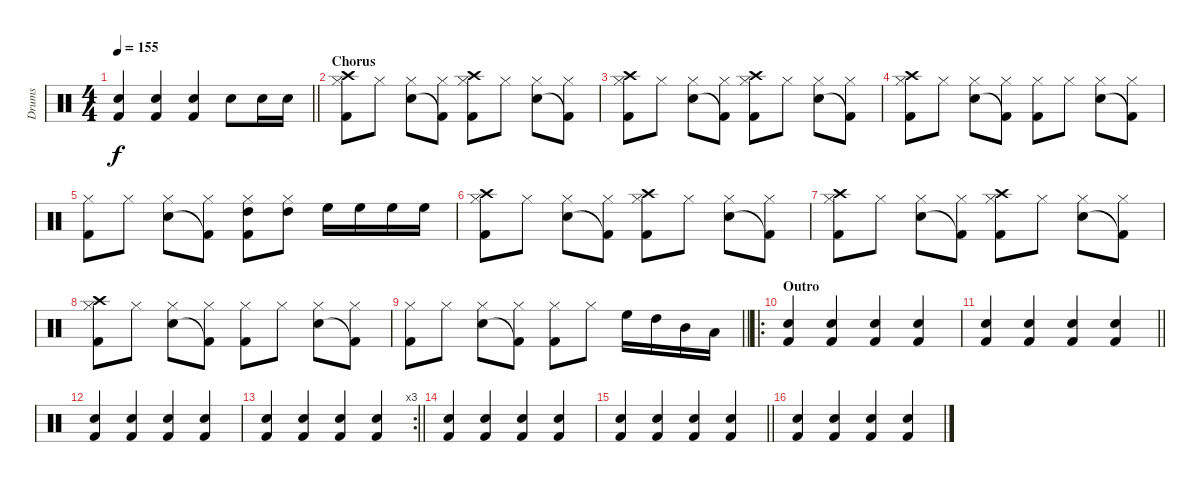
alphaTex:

\track ("Drums" "Drums") {instrument percussion}
\staff {score}
\articulation defaults
\ts (4 4)
\tempo 155
\clef neutral
\barLineRight lightlight
\ks c
("Electric Snare (hit)" "Kick (hit) 2").4{dy f} ("Electric Snare (hit)" "Kick (hit) 2").4 ("Electric Snare (hit)" "Kick (hit) 2").4 "Electric Snare (hit)".8 "Snare (hit) 2".16 "Snare (hit) 2".16 |
\section ("" "Chorus")
("Crash high (hit)" "Kick (hit) 2" "Hi-Hat (closed)").8 "Hi-Hat (closed)".8 ("Snare (hit) 2" "Hi-Hat (closed)").8 ("Kick (hit) 2"{t} "Hi-Hat (closed)").8 ("Crash high (hit)" "Kick (hit) 2" "Hi-Hat (closed)").8 "Hi-Hat (closed)".8 ("Snare (hit) 2" "Hi-Hat (closed)").8 ("Kick (hit) 2"{t} "Hi-Hat (closed)").8 |
("Crash high (hit)" "Kick (hit) 2" "Hi-Hat (closed)").8 "Hi-Hat (closed)".8 ("Snare (hit) 2" "Hi-Hat (closed)").8 ("Kick (hit) 2"{t} "Hi-Hat (closed)").8 ("Crash high (hit)" "Kick (hit) 2" "Hi-Hat (closed)").8 "Hi-Hat (closed)".8 ("Snare (hit) 2" "Hi-Hat (closed)").8 ("Kick (hit) 2"{t} "Hi-Hat (closed)").8 |
("Crash high (hit)" "Kick (hit) 2" "Hi-Hat (closed)").8 "Hi-Hat (closed)".8 ("Snare (hit) 2" "Hi-Hat (closed)").8 ("Kick (hit) 2"{t} "Hi-Hat (closed)").8 ("Kick (hit) 2" "Hi-Hat (closed)").8 "Hi-Hat (closed)".8 ("Snare (hit) 2" "Hi-Hat (closed)").8 ("Kick (hit) 2"{t} "Hi-Hat (closed)").8 |
("Kick (hit) 2" "Hi-Hat (closed)").8 "Hi-Hat (closed)".8 ("Snare (hit) 2" "Hi-Hat (closed)").8 ("Kick (hit) 2"{t} "Hi-Hat (closed)").8 ("Kick (hit) 2" "Hi-Hat (closed)" "High Tom (hit)").8 ("Hi-Hat (closed)" "High Tom (hit)").8 "High Floor Tom (hit)".16 "High Floor Tom (hit)".16 "High Floor Tom (hit)".16 "High Floor Tom (hit)".16 |
("Crash high (hit)" "Kick (hit) 2" "Hi-Hat (closed)").8 "Hi-Hat (closed)".8 ("Snare (hit) 2" "Hi-Hat (closed)").8 ("Kick (hit) 2"{t} "Hi-Hat (closed)").8 ("Crash high (hit)" "Kick (hit) 2" "Hi-Hat (closed)").8 "Hi-Hat (closed)".8 ("Snare (hit) 2" "Hi-Hat (closed)").8 ("Kick (hit) 2"{t} "Hi-Hat (closed)").8 |
("Crash high (hit)" "Kick (hit) 2" "Hi-Hat (closed)").8 "Hi-Hat (closed)".8 ("Snare (hit) 2" "Hi-Hat (closed)").8 ("Kick (hit) 2"{t} "Hi-Hat (closed)").8 ("Crash high (hit)" "Kick (hit) 2" "Hi-Hat (closed)").8 "Hi-Hat (closed)".8 ("Snare (hit) 2" "Hi-Hat (closed)").8 ("Kick (hit) 2"{t} "Hi-Hat (closed)").8 |
("Crash high (hit)" "Kick (hit) 2" "Hi-Hat (closed)").8 "Hi-Hat (closed)".8 ("Snare (hit) 2" "Hi-Hat (closed)").8 ("Kick (hit) 2"{t} "Hi-Hat (closed)").8 ("Kick (hit) 2" "Hi-Hat (closed)").8 "Hi-Hat (closed)".8 ("Snare (hit) 2" "Hi-Hat (closed)").8 ("Kick (hit) 2"{t} "Hi-Hat (closed)").8 |
\barLineRight lightlight
("Kick (hit) 2" "Hi-Hat (closed)").8 "Hi-Hat (closed)".8 ("Snare (hit) 2" "Hi-Hat (closed)").8 ("Kick (hit) 2"{t} "Hi-Hat (closed)").8 ("Kick (hit) 2" "Hi-Hat (closed)").8 "Hi-Hat (closed)".8 "High Floor Tom (hit)".16 "High Tom (hit)".16 "Mid Tom (hit)".16 "Low Tom (hit)".16 |
\ro
\section ("" "Outro")
("Electric Snare (hit)" "Kick (hit) 2").4 ("Electric Snare (hit)" "Kick (hit) 2").4 ("Electric Snare (hit)" "Kick (hit) 2").4 ("Electric Snare (hit)" "Kick (hit) 2").4 |
\barLineRight lightlight
("Electric Snare (hit)" "Kick (hit) 2").4 ("Electric Snare (hit)" "Kick (hit) 2").4 ("Electric Snare (hit)" "Kick (hit) 2").4 ("Electric Snare (hit)" "Kick (hit) 2").4 |
("Electric Snare (hit)" "Kick (hit) 2").4 ("Electric Snare (hit)" "Kick (hit) 2").4 ("Electric Snare (hit)" "Kick (hit) 2").4 ("Electric Snare (hit)" "Kick (hit) 2").4 |
\rc 3
\barLineRight lightlight
("Electric Snare (hit)" "Kick (hit) 2").4 ("Electric Snare (hit)" "Kick (hit) 2").4 ("Electric Snare (hit)" "Kick (hit) 2").4 ("Electric Snare (hit)" "Kick (hit) 2").4 |
("Electric Snare (hit)" "Kick (hit) 2").4 ("Electric Snare (hit)" "Kick (hit) 2").4 ("Electric Snare (hit)" "Kick (hit) 2").4 ("Electric Snare (hit)" "Kick (hit) 2").4 |
\barLineRight lightlight
("Electric Snare (hit)" "Kick (hit) 2").4 ("Electric Snare (hit)" "Kick (hit) 2").4 ("Electric Snare (hit)" "Kick (hit) 2").4 ("Electric Snare (hit)" "Kick (hit) 2").4 |
("Electric Snare (hit)" "Kick (hit) 2").4 ("Electric Snare (hit)" "Kick (hit) 2").4 ("Electric Snare (hit)" "Kick (hit) 2").4 ("Electric Snare (hit)" "Kick (hit) 2").4
